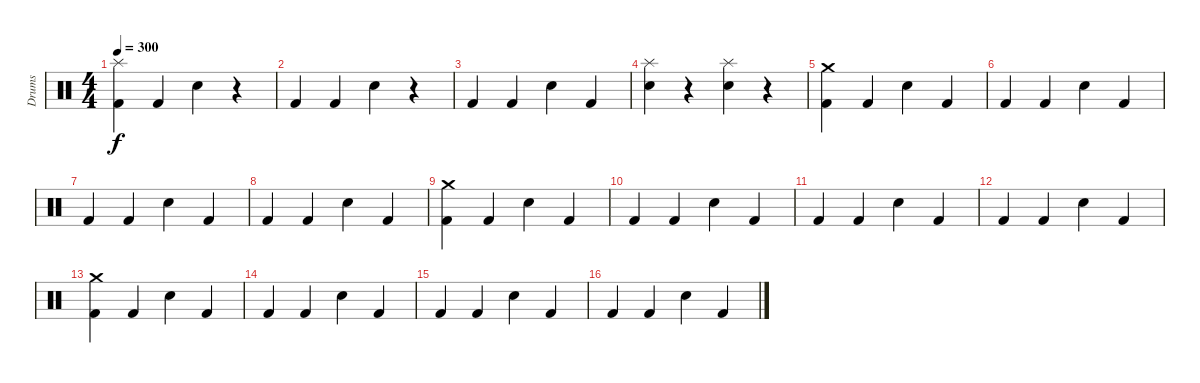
\track ("Drums" "Drums") {instrument percussion}
\staff {score}
\articulation defaults
\ts (4 4)
\tempo 300
\clef neutral
\ks c
("Splash (hit)" "Kick (hit) 2").4{dy f} "Kick (hit) 2".4 "Snare (hit) 2".4 r.4 |
"Kick (hit) 2".4 "Kick (hit) 2".4 "Snare (hit) 2".4 r.4 |
"Kick (hit) 2".4 "Kick (hit) 2".4 "Snare (hit) 2".4 "Kick (hit) 2".4 |
("Splash (hit)" "Electric Snare (hit)").4 r.4 ("Splash (hit)" "Electric Snare (hit)").4 r.4 |
("Crash medium (hit)" "Kick (hit) 2").4 "Kick (hit) 2".4 "Snare (hit) 2".4 "Kick (hit) 2".4 |
"Kick (hit) 2".4 "Kick (hit) 2".4 "Snare (hit) 2".4 "Kick (hit) 2".4 |
"Kick (hit) 2".4 "Kick (hit) 2".4 "Snare (hit) 2".4 "Kick (hit) 2".4 |
"Kick (hit) 2".4 "Kick (hit) 2".4 "Snare (hit) 2".4 "Kick (hit) 2".4 |
("Crash medium (hit)" "Kick (hit) 2").4 "Kick (hit) 2".4 "Snare (hit) 2".4 "Kick (hit) 2".4 |
"Kick (hit) 2".4 "Kick (hit) 2".4 "Snare (hit) 2".4 "Kick (hit) 2".4 |
"Kick (hit) 2".4 "Kick (hit) 2".4 "Snare (hit) 2".4 "Kick (hit) 2".4 |
"Kick (hit) 2".4 "Kick (hit) 2".4 "Snare (hit) 2".4 "Kick (hit) 2".4 |
("Crash medium (hit)" "Kick (hit) 2").4 "Kick (hit) 2".4 "Snare (hit) 2".4 "Kick (hit) 2".4 |
"Kick (hit) 2".4 "Kick (hit) 2".4 "Snare (hit) 2".4 "Kick (hit) 2".4 |
"Kick (hit) 2".4 "Kick (hit) 2".4 "Snare (hit) 2".4 "Kick (hit) 2".4 |
"Kick (hit) 2".4 "Kick (hit) 2".4 "Snare (hit) 2".4 "Kick (hit) 2".4
